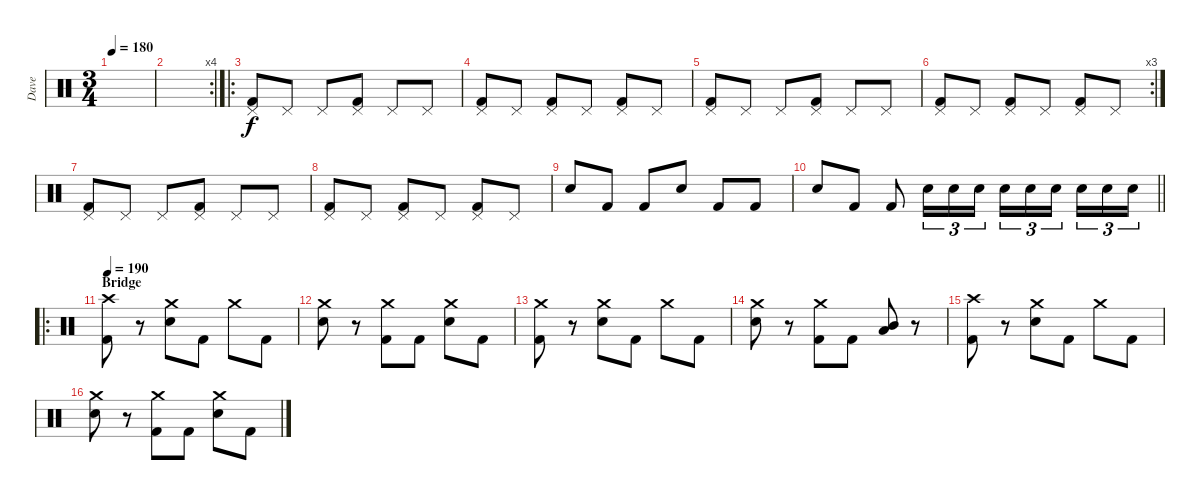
\track ("Dave" "Dave") {instrument percussion}
\staff {score}
\articulation defaults
\ts (3 4)
\tempo 180
\clef neutral
\ks c
|
\rc 4
|
\ro
("Kick (hit) 2" "Pedal Hi-Hat (hit)").8 "Pedal Hi-Hat (hit)".8 "Pedal Hi-Hat (hit)".8 ("Kick (hit) 2" "Pedal Hi-Hat (hit)").8 "Pedal Hi-Hat (hit)".8 "Pedal Hi-Hat (hit)".8 |
("Kick (hit) 2" "Pedal Hi-Hat (hit)").8 "Pedal Hi-Hat (hit)".8 ("Kick (hit) 2" "Pedal Hi-Hat (hit)").8 "Pedal Hi-Hat (hit)".8 ("Kick (hit) 2" "Pedal Hi-Hat (hit)").8 "Pedal Hi-Hat (hit)".8 |
("Kick (hit) 2" "Pedal Hi-Hat (hit)").8 "Pedal Hi-Hat (hit)".8 "Pedal Hi-Hat (hit)".8 ("Kick (hit) 2" "Pedal Hi-Hat (hit)").8 "Pedal Hi-Hat (hit)".8 "Pedal Hi-Hat (hit)".8 |
\rc 3
("Kick (hit) 2" "Pedal Hi-Hat (hit)").8 "Pedal Hi-Hat (hit)".8 ("Kick (hit) 2" "Pedal Hi-Hat (hit)").8 "Pedal Hi-Hat (hit)".8 ("Kick (hit) 2" "Pedal Hi-Hat (hit)").8 "Pedal Hi-Hat (hit)".8 |
("Kick (hit) 2" "Pedal Hi-Hat (hit)").8 "Pedal Hi-Hat (hit)".8 "Pedal Hi-Hat (hit)".8 ("Kick (hit) 2" "Pedal Hi-Hat (hit)").8 "Pedal Hi-Hat (hit)".8 "Pedal Hi-Hat (hit)".8 |
("Kick (hit) 2" "Pedal Hi-Hat (hit)").8 "Pedal Hi-Hat (hit)".8 ("Kick (hit) 2" "Pedal Hi-Hat (hit)").8 "Pedal Hi-Hat (hit)".8 ("Kick (hit) 2" "Pedal Hi-Hat (hit)").8 "Pedal Hi-Hat (hit)".8 |
"Electric Snare (hit)".8 "Kick (hit) 2".8 "Kick (hit) 2".8 "Electric Snare (hit)".8 "Kick (hit) 2".8 "Kick (hit) 2".8 |
\barLineRight lightlight "Electric Snare (hit)".8 "Kick (hit) 2".8 "Kick (hit) 2".8 "Electric Snare (hit)".16{tu (3 2)} "Electric Snare (hit)".16{tu (3 2)} "Electric Snare (hit)".16{tu (3 2)} "Electric Snare (hit)".16{tu (3 2)} "Electric Snare (hit)".16{tu (3 2)} "Electric Snare (hit)".16{tu (3 2) beam splitsecondary} "Electric Snare (hit)".16{tu (3 2)} "Electric Snare (hit)".16{tu (3 2)} "Electric Snare (hit)".16{tu (3 2)}
|
\ro
\section ("" "Bridge")
\tempo 190
("Kick (hit) 2" "Crash high (hit)").8 r.8 ("Electric Snare (hit)" "Crash medium (hit)").8 "Kick (hit) 2".8 "Crash medium (hit)".8 "Kick (hit) 2".8 |
("Electric Snare (hit)" "Crash medium (hit)").8 r.8 ("Kick (hit) 2" "Crash medium (hit)").8 "Kick (hit) 2".8 ("Electric Snare (hit)" "Crash medium (hit)").8 "Kick (hit) 2".8 |
("Kick (hit) 2" "Crash medium (hit)").8 r.8 ("Electric Snare (hit)" "Crash medium (hit)").8 "Kick (hit) 2".8 "Crash medium (hit)".8 "Kick (hit) 2".8 |
("Electric Snare (hit)" "Crash medium (hit)").8 r.8 ("Kick (hit) 2" "Crash medium (hit)").8 "Kick (hit) 2".8 ("Mid Tom (hit)" "Low Tom (hit)").8 r.8 |
("Kick (hit) 2" "Crash high (hit)").8 r.8 ("Electric Snare (hit)" "Crash medium (hit)").8 "Kick (hit) 2".8 "Crash medium (hit)".8 "Kick (hit) 2".8 |
("Electric Snare (hit)" "Crash medium (hit)").8 r.8 ("Kick (hit) 2" "Crash medium (hit)").8 "Kick (hit) 2".8 ("Electric Snare (hit)" "Crash medium (hit)").8 "Kick (hit) 2".8
